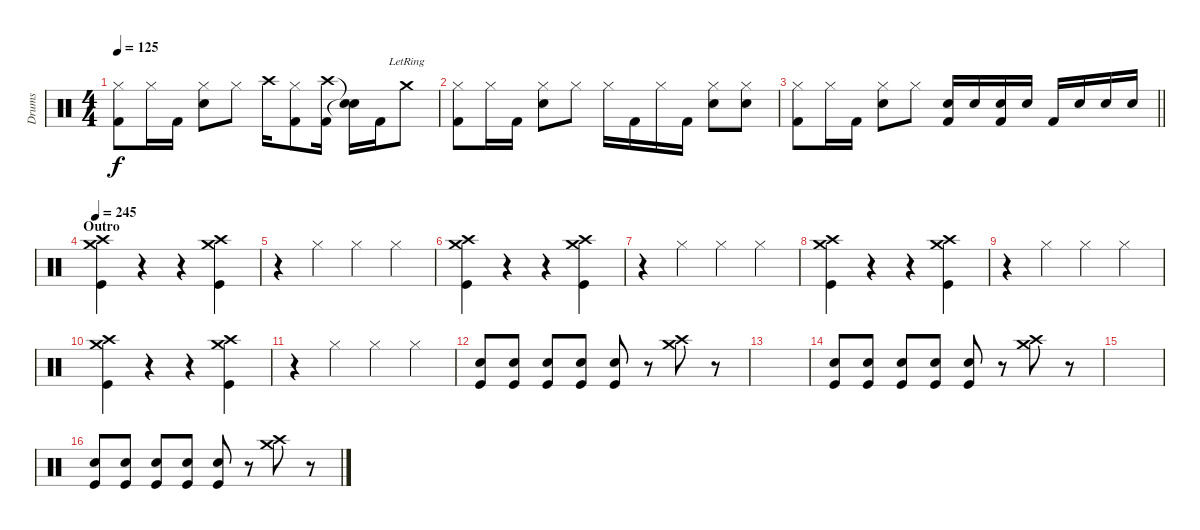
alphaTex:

\track ("Drums" "Drums") {instrument percussion}
\staff {score}
\articulation defaults
\ts (4 4)
\tempo 125
\clef neutral
\ks c
("Hi-Hat (closed)" "Kick (hit) 2").8{dy f} "Hi-Hat (closed)".16 "Kick (hit) 2".16 ("Hi-Hat (closed)" "Snare (hit) 2").8 "Hi-Hat (closed)".8 "Crash high (hit)".16 ("Hi-Hat (closed)" "Kick (hit) 2").8 ("Crash high (hit)" "Kick (hit) 2").16 ("Snare (hit)"{t} "Snare (hit)"{t}).16 "Kick (hit) 2".16 "Crash medium (hit)"{lr}.8 |
("Hi-Hat (closed)" "Kick (hit) 2").8 "Hi-Hat (closed)".16 "Kick (hit) 2".16 ("Hi-Hat (closed)" "Snare (hit) 2").8 "Hi-Hat (closed)".8 "Hi-Hat (closed)".16 "Kick (hit) 2".16 "Hi-Hat (closed)".16 "Kick (hit) 2".16 ("Hi-Hat (closed)" "Snare (hit) 2").8 ("Hi-Hat (closed)" "Snare (hit) 2").8 |
\barLineRight lightlight
("Hi-Hat (closed)" "Kick (hit) 2").8 "Hi-Hat (closed)".16 "Kick (hit) 2".16 ("Hi-Hat (closed)" "Snare (hit) 2").8 "Hi-Hat (closed)".8 ("Snare (hit) 2" "Kick (hit) 2").16 "Snare (hit) 2".16 ("Snare (hit) 2" "Kick (hit) 2").16 "Snare (hit) 2".16 "Kick (hit) 2".16 "Snare (hit) 2".16 "Snare (hit) 2".16 "Snare (hit) 2".16 |
\section ("" "Outro")
\tempo 245
("Crash high (hit)" "Crash medium (hit)" "Kick (hit)").4 r.4 r.4 ("Crash high (hit)" "Crash medium (hit)" "Kick (hit)").4 |
r.4 "Hi-Hat (closed)".4 "Hi-Hat (closed)".4 "Hi-Hat (closed)".4 |
("Crash high (hit)" "Crash medium (hit)" "Kick (hit)").4 r.4 r.4 ("Crash high (hit)" "Crash medium (hit)" "Kick (hit)").4 |
r.4 "Hi-Hat (closed)".4 "Hi-Hat (closed)".4 "Hi-Hat (closed)".4 |
("Crash high (hit)" "Crash medium (hit)" "Kick (hit)").4 r.4 r.4 ("Crash high (hit)" "Crash medium (hit)" "Kick (hit)").4 |
r.4 "Hi-Hat (closed)".4 "Hi-Hat (closed)".4 "Hi-Hat (closed)".4 |
("Crash high (hit)" "Crash medium (hit)" "Kick (hit)").4 r.4 r.4 ("Crash high (hit)" "Crash medium (hit)" "Kick (hit)").4 |
r.4 "Hi-Hat (closed)".4 "Hi-Hat (closed)".4 "Hi-Hat (closed)".4 |
("Electric Snare (hit)" "Kick (hit)").8 ("Electric Snare (hit)" "Kick (hit)").8 ("Electric Snare (hit)" "Kick (hit)").8 ("Electric Snare (hit)" "Kick (hit)").8 ("Electric Snare (hit)" "Kick (hit)").8 r.8 ("Crash high (hit)" "Crash medium (hit)").8 r.8 |
|
("Electric Snare (hit)" "Kick (hit)").8 ("Electric Snare (hit)" "Kick (hit)").8 ("Electric Snare (hit)" "Kick (hit)").8 ("Electric Snare (hit)" "Kick (hit)").8 ("Electric Snare (hit)" "Kick (hit)").8 r.8 ("Crash high (hit)" "Crash medium (hit)").8 r.8 |
|
("Electric Snare (hit)" "Kick (hit)").8 ("Electric Snare (hit)" "Kick (hit)").8 ("Electric Snare (hit)" "Kick (hit)").8 ("Electric Snare (hit)" "Kick (hit)").8 ("Electric Snare (hit)" "Kick (hit)").8 r.8 ("Crash high (hit)" "Crash medium (hit)").8 r.8
